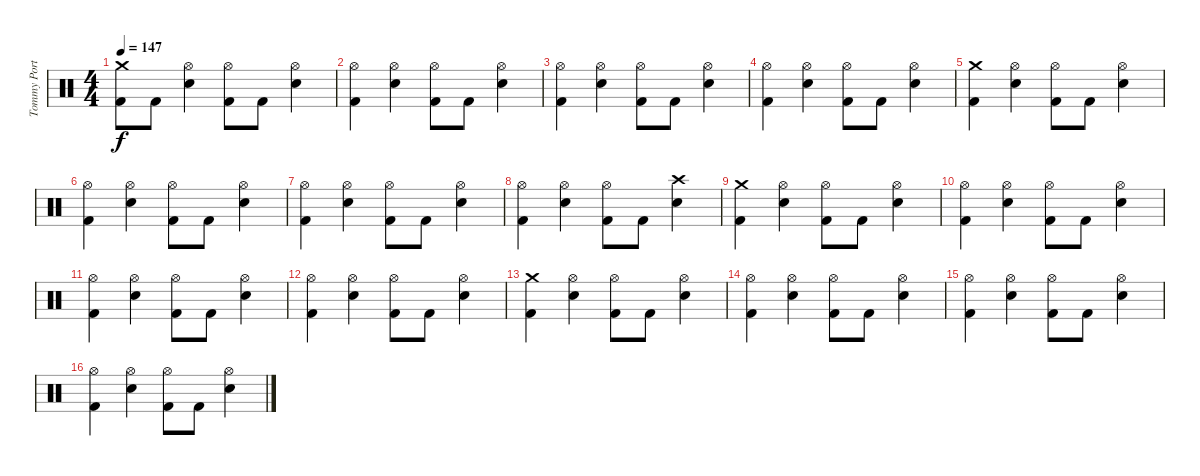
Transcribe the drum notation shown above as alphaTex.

\track ("Tommy Portino" "Tommy Port") {instrument percussion}
\staff {score}
\articulation defaults
\ts (4 4)
\tempo 147
\clef neutral
\ks c
("Crash medium (hit)" "Kick (hit) 2").8{dy f} "Kick (hit) 2".8 ("Hi-Hat (open)" "Electric Snare (hit)").4 ("Hi-Hat (open)" "Kick (hit) 2").8 "Kick (hit) 2".8 ("Hi-Hat (open)" "Electric Snare (hit)").4 |
("Hi-Hat (open)" "Kick (hit) 2").4 ("Hi-Hat (open)" "Electric Snare (hit)").4 ("Hi-Hat (open)" "Kick (hit) 2").8 "Kick (hit) 2".8 ("Hi-Hat (open)" "Electric Snare (hit)").4 |
("Hi-Hat (open)" "Kick (hit) 2").4 ("Hi-Hat (open)" "Electric Snare (hit)").4 ("Hi-Hat (open)" "Kick (hit) 2").8 "Kick (hit) 2".8 ("Hi-Hat (open)" "Electric Snare (hit)").4 |
("Hi-Hat (open)" "Kick (hit) 2").4 ("Hi-Hat (open)" "Electric Snare (hit)").4 ("Hi-Hat (open)" "Kick (hit) 2").8 "Kick (hit) 2".8 ("Hi-Hat (open)" "Electric Snare (hit)").4 |
("Crash medium (hit)" "Kick (hit) 2").4 ("Hi-Hat (open)" "Electric Snare (hit)").4 ("Hi-Hat (open)" "Kick (hit) 2").8 "Kick (hit) 2".8 ("Hi-Hat (open)" "Electric Snare (hit)").4 |
("Hi-Hat (open)" "Kick (hit) 2").4 ("Hi-Hat (open)" "Electric Snare (hit)").4 ("Hi-Hat (open)" "Kick (hit) 2").8 "Kick (hit) 2".8 ("Hi-Hat (open)" "Electric Snare (hit)").4 |
("Hi-Hat (open)" "Kick (hit) 2").4 ("Hi-Hat (open)" "Electric Snare (hit)").4 ("Hi-Hat (open)" "Kick (hit) 2").8 "Kick (hit) 2".8 ("Hi-Hat (open)" "Electric Snare (hit)").4 |
("Hi-Hat (open)" "Kick (hit) 2").4 ("Hi-Hat (open)" "Electric Snare (hit)").4 ("Hi-Hat (open)" "Kick (hit) 2").8 "Kick (hit) 2".8 ("Crash high (hit)" "Electric Snare (hit)").4 |
("Crash medium (hit)" "Kick (hit) 2").4 ("Hi-Hat (open)" "Electric Snare (hit)").4 ("Hi-Hat (open)" "Kick (hit) 2").8 "Kick (hit) 2".8 ("Hi-Hat (open)" "Electric Snare (hit)").4 |
("Hi-Hat (open)" "Kick (hit) 2").4 ("Hi-Hat (open)" "Electric Snare (hit)").4 ("Hi-Hat (open)" "Kick (hit) 2").8 "Kick (hit) 2".8 ("Hi-Hat (open)" "Electric Snare (hit)").4 |
("Hi-Hat (open)" "Kick (hit) 2").4 ("Hi-Hat (open)" "Electric Snare (hit)").4 ("Hi-Hat (open)" "Kick (hit) 2").8 "Kick (hit) 2".8 ("Hi-Hat (open)" "Electric Snare (hit)").4 |
("Hi-Hat (open)" "Kick (hit) 2").4 ("Hi-Hat (open)" "Electric Snare (hit)").4 ("Hi-Hat (open)" "Kick (hit) 2").8 "Kick (hit) 2".8 ("Hi-Hat (open)" "Electric Snare (hit)").4 |
("Crash medium (hit)" "Kick (hit) 2").4 ("Hi-Hat (open)" "Electric Snare (hit)").4 ("Hi-Hat (open)" "Kick (hit) 2").8 "Kick (hit) 2".8 ("Hi-Hat (open)" "Electric Snare (hit)").4 |
("Hi-Hat (open)" "Kick (hit) 2").4 ("Hi-Hat (open)" "Electric Snare (hit)").4 ("Hi-Hat (open)" "Kick (hit) 2").8 "Kick (hit) 2".8 ("Hi-Hat (open)" "Electric Snare (hit)").4 |
("Hi-Hat (open)" "Kick (hit) 2").4 ("Hi-Hat (open)" "Electric Snare (hit)").4 ("Hi-Hat (open)" "Kick (hit) 2").8 "Kick (hit) 2".8 ("Hi-Hat (open)" "Electric Snare (hit)").4 |
("Hi-Hat (open)" "Kick (hit) 2").4 ("Hi-Hat (open)" "Electric Snare (hit)").4 ("Hi-Hat (open)" "Kick (hit) 2").8 "Kick (hit) 2".8 ("Hi-Hat (open)" "Electric Snare (hit)").4
